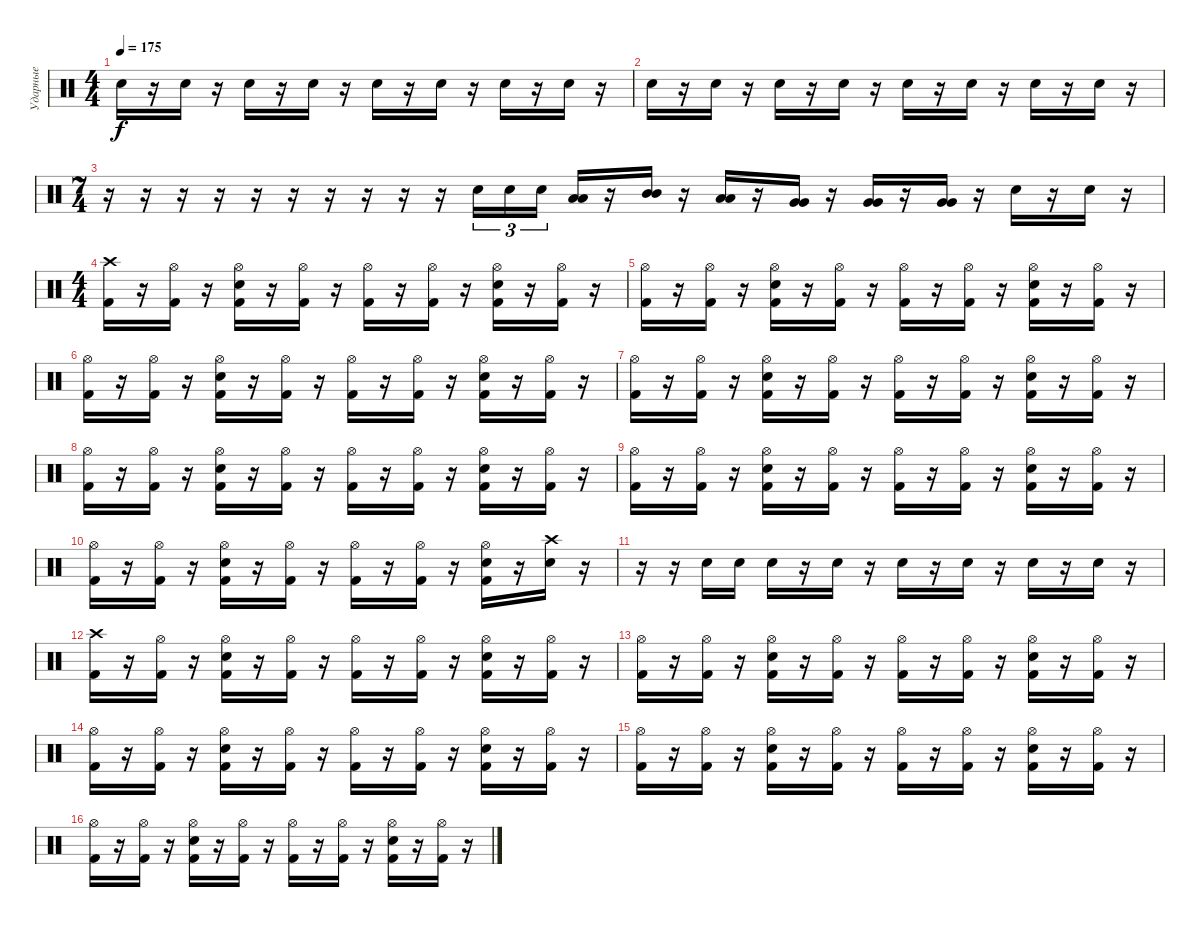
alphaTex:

\track ("Ударные" "Ударные") {instrument percussion}
\staff {score}
\articulation defaults
\ts (4 4)
\tempo 175
\clef neutral
\ks c "Electric Snare (hit)".16{dy f}
r.16 "Electric Snare (hit)".16 r.16 "Electric Snare (hit)".16 r.16 "Electric Snare (hit)".16 r.16 "Electric Snare (hit)".16 r.16 "Electric Snare (hit)".16 r.16 "Electric Snare (hit)".16 r.16 "Electric Snare (hit)".16 r.16 |
"Electric Snare (hit)".16 r.16 "Electric Snare (hit)".16 r.16 "Electric Snare (hit)".16 r.16 "Electric Snare (hit)".16 r.16 "Electric Snare (hit)".16 r.16 "Electric Snare (hit)".16 r.16 "Electric Snare (hit)".16 r.16 "Electric Snare (hit)".16 r.16 |
\ts (7 4)
r.16 r.16 r.16 r.16 r.16 r.16 r.16 r.16 r.16 r.16 "Electric Snare (hit)".16{tu (3 2)} "Electric Snare (hit)".16{tu (3 2)} "Electric Snare (hit)".16{tu (3 2)} ("Low Tom (hit)" "Low Tom (hit)").16 r.16 ("Mid Tom (hit)" "Mid Tom (hit)").16 r.16 ("Low Tom (hit)" "Low Tom (hit)").16 r.16 ("Very Low Tom (hit)" "Very Low Tom (hit)").16 r.16 ("Very Low Tom (hit)" "Very Low Tom (hit)").16 r.16 ("Very Low Tom (hit)" "Very Low Tom (hit)").16 r.16 "Electric Snare (hit)".16 r.16 "Electric Snare (hit)".16 r.16 |
\ts (4 4)
("Crash high (hit)" "Kick (hit) 2").16 r.16 ("Hi-Hat (open)" "Kick (hit) 2").16 r.16 ("Hi-Hat (open)" "Electric Snare (hit)" "Kick (hit) 2").16 r.16 ("Hi-Hat (open)" "Kick (hit) 2").16 r.16 ("Hi-Hat (open)" "Kick (hit) 2").16 r.16 ("Hi-Hat (open)" "Kick (hit) 2").16 r.16 ("Hi-Hat (open)" "Electric Snare (hit)" "Kick (hit) 2").16 r.16 ("Hi-Hat (open)" "Kick (hit) 2").16 r.16 |
("Hi-Hat (open)" "Kick (hit) 2").16 r.16 ("Hi-Hat (open)" "Kick (hit) 2").16 r.16 ("Hi-Hat (open)" "Electric Snare (hit)" "Kick (hit) 2").16 r.16 ("Hi-Hat (open)" "Kick (hit) 2").16 r.16 ("Hi-Hat (open)" "Kick (hit) 2").16 r.16 ("Hi-Hat (open)" "Kick (hit) 2").16 r.16 ("Hi-Hat (open)" "Electric Snare (hit)" "Kick (hit) 2").16 r.16 ("Hi-Hat (open)" "Kick (hit) 2").16 r.16 |
("Hi-Hat (open)" "Kick (hit) 2").16 r.16 ("Hi-Hat (open)" "Kick (hit) 2").16 r.16 ("Hi-Hat (open)" "Electric Snare (hit)" "Kick (hit) 2").16 r.16 ("Hi-Hat (open)" "Kick (hit) 2").16 r.16 ("Hi-Hat (open)" "Kick (hit) 2").16 r.16 ("Hi-Hat (open)" "Kick (hit) 2").16 r.16 ("Hi-Hat (open)" "Electric Snare (hit)" "Kick (hit) 2").16 r.16 ("Hi-Hat (open)" "Kick (hit) 2").16 r.16 |
("Hi-Hat (open)" "Kick (hit) 2").16 r.16 ("Hi-Hat (open)" "Kick (hit) 2").16 r.16 ("Hi-Hat (open)" "Electric Snare (hit)" "Kick (hit) 2").16 r.16 ("Hi-Hat (open)" "Kick (hit) 2").16 r.16 ("Hi-Hat (open)" "Kick (hit) 2").16 r.16 ("Hi-Hat (open)" "Kick (hit) 2").16 r.16 ("Hi-Hat (open)" "Electric Snare (hit)" "Kick (hit) 2").16 r.16 ("Hi-Hat (open)" "Kick (hit) 2").16 r.16 |
("Hi-Hat (open)" "Kick (hit) 2").16 r.16 ("Hi-Hat (open)" "Kick (hit) 2").16 r.16 ("Hi-Hat (open)" "Electric Snare (hit)" "Kick (hit) 2").16 r.16 ("Hi-Hat (open)" "Kick (hit) 2").16 r.16 ("Hi-Hat (open)" "Kick (hit) 2").16 r.16 ("Hi-Hat (open)" "Kick (hit) 2").16 r.16 ("Hi-Hat (open)" "Electric Snare (hit)" "Kick (hit) 2").16 r.16 ("Hi-Hat (open)" "Kick (hit) 2").16 r.16 |
("Hi-Hat (open)" "Kick (hit) 2").16 r.16 ("Hi-Hat (open)" "Kick (hit) 2").16 r.16 ("Hi-Hat (open)" "Electric Snare (hit)" "Kick (hit) 2").16 r.16 ("Hi-Hat (open)" "Kick (hit) 2").16 r.16 ("Hi-Hat (open)" "Kick (hit) 2").16 r.16 ("Hi-Hat (open)" "Kick (hit) 2").16 r.16 ("Hi-Hat (open)" "Electric Snare (hit)" "Kick (hit) 2").16 r.16 ("Hi-Hat (open)" "Kick (hit) 2").16 r.16 |
("Hi-Hat (open)" "Kick (hit) 2").16 r.16 ("Hi-Hat (open)" "Kick (hit) 2").16 r.16 ("Hi-Hat (open)" "Electric Snare (hit)" "Kick (hit) 2").16 r.16 ("Hi-Hat (open)" "Kick (hit) 2").16 r.16 ("Hi-Hat (open)" "Kick (hit) 2").16 r.16 ("Hi-Hat (open)" "Kick (hit) 2").16 r.16 ("Hi-Hat (open)" "Electric Snare (hit)" "Kick (hit) 2").16 r.16 ("Crash high (hit)" "Electric Snare (hit)").16 r.16 |
r.16 r.16 "Electric Snare (hit)".16 "Electric Snare (hit)".16 "Electric Snare (hit)".16 r.16 "Electric Snare (hit)".16 r.16 "Electric Snare (hit)".16 r.16 "Electric Snare (hit)".16 r.16 "Electric Snare (hit)".16 r.16 "Electric Snare (hit)".16 r.16 |
("Crash high (hit)" "Kick (hit) 2").16 r.16 ("Hi-Hat (open)" "Kick (hit) 2").16 r.16 ("Hi-Hat (open)" "Electric Snare (hit)" "Kick (hit) 2").16 r.16 ("Hi-Hat (open)" "Kick (hit) 2").16 r.16 ("Hi-Hat (open)" "Kick (hit) 2").16 r.16 ("Hi-Hat (open)" "Kick (hit) 2").16 r.16 ("Hi-Hat (open)" "Electric Snare (hit)" "Kick (hit) 2").16 r.16 ("Hi-Hat (open)" "Kick (hit) 2").16 r.16 |
("Hi-Hat (open)" "Kick (hit) 2").16 r.16 ("Hi-Hat (open)" "Kick (hit) 2").16 r.16 ("Hi-Hat (open)" "Electric Snare (hit)" "Kick (hit) 2").16 r.16 ("Hi-Hat (open)" "Kick (hit) 2").16 r.16 ("Hi-Hat (open)" "Kick (hit) 2").16 r.16 ("Hi-Hat (open)" "Kick (hit) 2").16 r.16 ("Hi-Hat (open)" "Electric Snare (hit)" "Kick (hit) 2").16 r.16 ("Hi-Hat (open)" "Kick (hit) 2").16 r.16 |
("Hi-Hat (open)" "Kick (hit) 2").16 r.16 ("Hi-Hat (open)" "Kick (hit) 2").16 r.16 ("Hi-Hat (open)" "Electric Snare (hit)" "Kick (hit) 2").16 r.16 ("Hi-Hat (open)" "Kick (hit) 2").16 r.16 ("Hi-Hat (open)" "Kick (hit) 2").16 r.16 ("Hi-Hat (open)" "Kick (hit) 2").16 r.16 ("Hi-Hat (open)" "Electric Snare (hit)" "Kick (hit) 2").16 r.16 ("Hi-Hat (open)" "Kick (hit) 2").16 r.16 |
("Hi-Hat (open)" "Kick (hit) 2").16 r.16 ("Hi-Hat (open)" "Kick (hit) 2").16 r.16 ("Hi-Hat (open)" "Electric Snare (hit)" "Kick (hit) 2").16 r.16 ("Hi-Hat (open)" "Kick (hit) 2").16 r.16 ("Hi-Hat (open)" "Kick (hit) 2").16 r.16 ("Hi-Hat (open)" "Kick (hit) 2").16 r.16 ("Hi-Hat (open)" "Electric Snare (hit)" "Kick (hit) 2").16 r.16 ("Hi-Hat (open)" "Kick (hit) 2").16 r.16 |
("Hi-Hat (open)" "Kick (hit) 2").16 r.16 ("Hi-Hat (open)" "Kick (hit) 2").16 r.16 ("Hi-Hat (open)" "Electric Snare (hit)" "Kick (hit) 2").16 r.16 ("Hi-Hat (open)" "Kick (hit) 2").16 r.16 ("Hi-Hat (open)" "Kick (hit) 2").16 r.16 ("Hi-Hat (open)" "Kick (hit) 2").16 r.16 ("Hi-Hat (open)" "Electric Snare (hit)" "Kick (hit) 2").16 r.16 ("Hi-Hat (open)" "Kick (hit) 2").16 r.16
